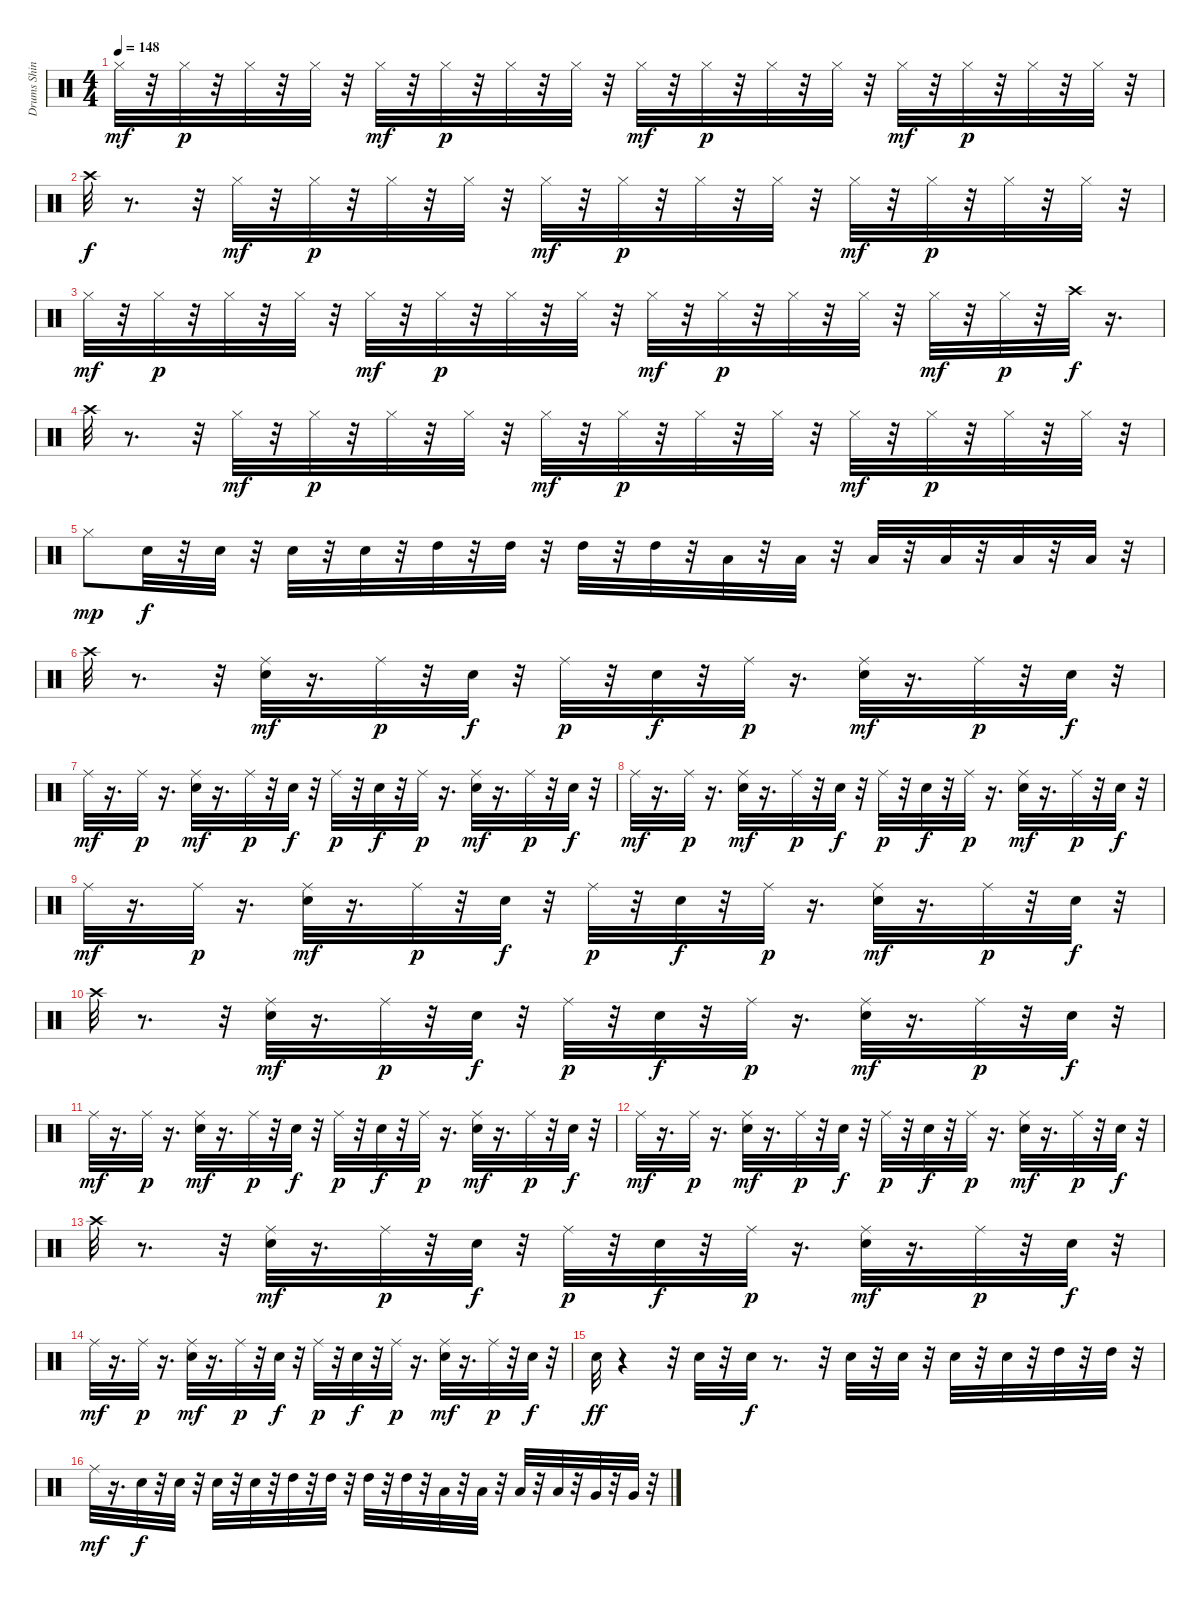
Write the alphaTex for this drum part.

\track ("Drums Shinya         " "Drums Shin") {instrument percussion}
\staff {score}
\articulation defaults
\ts (4 4)
\tempo 148
\clef neutral
\ks c "Hi-Hat (closed)".32{dy mf}
r.32 "Hi-Hat (closed)".32{dy p} r.32 "Hi-Hat (closed)".32 r.32 "Hi-Hat (closed)".32 r.32 "Hi-Hat (closed)".32{dy mf} r.32 "Hi-Hat (closed)".32{dy p} r.32 "Hi-Hat (closed)".32 r.32 "Hi-Hat (closed)".32 r.32 "Hi-Hat (closed)".32{dy mf} r.32 "Hi-Hat (closed)".32{dy p} r.32 "Hi-Hat (closed)".32 r.32 "Hi-Hat (closed)".32 r.32 "Hi-Hat (closed)".32{dy mf} r.32 "Hi-Hat (closed)".32{dy p} r.32 "Hi-Hat (closed)".32 r.32 "Hi-Hat (closed)".32 r.32 |
"Crash high (hit)".32{dy f} r.8{d} r.32 "Hi-Hat (closed)".32{dy mf} r.32 "Hi-Hat (closed)".32{dy p} r.32 "Hi-Hat (closed)".32 r.32 "Hi-Hat (closed)".32 r.32 "Hi-Hat (closed)".32{dy mf} r.32 "Hi-Hat (closed)".32{dy p} r.32 "Hi-Hat (closed)".32 r.32 "Hi-Hat (closed)".32 r.32 "Hi-Hat (closed)".32{dy mf} r.32 "Hi-Hat (closed)".32{dy p} r.32 "Hi-Hat (closed)".32 r.32 "Hi-Hat (closed)".32 r.32 |
"Hi-Hat (closed)".32{dy mf} r.32 "Hi-Hat (closed)".32{dy p} r.32 "Hi-Hat (closed)".32 r.32 "Hi-Hat (closed)".32 r.32 "Hi-Hat (closed)".32{dy mf} r.32 "Hi-Hat (closed)".32{dy p} r.32 "Hi-Hat (closed)".32 r.32 "Hi-Hat (closed)".32 r.32 "Hi-Hat (closed)".32{dy mf} r.32 "Hi-Hat (closed)".32{dy p} r.32 "Hi-Hat (closed)".32 r.32 "Hi-Hat (closed)".32 r.32 "Hi-Hat (closed)".32{dy mf} r.32 "Hi-Hat (closed)".32{dy p} r.32 "Crash high (hit)".32{dy f} r.16{d} |
"Crash high (hit)".32 r.8{d} r.32 "Hi-Hat (closed)".32{dy mf} r.32 "Hi-Hat (closed)".32{dy p} r.32 "Hi-Hat (closed)".32 r.32 "Hi-Hat (closed)".32 r.32 "Hi-Hat (closed)".32{dy mf} r.32 "Hi-Hat (closed)".32{dy p} r.32 "Hi-Hat (closed)".32 r.32 "Hi-Hat (closed)".32 r.32 "Hi-Hat (closed)".32{dy mf} r.32 "Hi-Hat (closed)".32{dy p} r.32 "Hi-Hat (closed)".32 r.32 "Hi-Hat (closed)".32 r.32 |
"Hi-Hat (closed)".8{dy mp} "Electric Snare (hit)".32{dy f} r.32 "Electric Snare (hit)".32 r.32 "Electric Snare (hit)".32 r.32 "Electric Snare (hit)".32 r.32 "High Tom (hit)".32 r.32 "High Tom (hit)".32 r.32 "High Tom (hit)".32 r.32 "High Tom (hit)".32 r.32 "Low Tom (hit)".32 r.32 "Low Tom (hit)".32 r.32 "Low Tom (hit)".32 r.32 "Low Tom (hit)".32 r.32 "Low Floor Tom (hit)".32 r.32 "Low Floor Tom (hit)".32 r.32 |
"Crash high (hit)".32 r.8{d} r.32 ("Electric Snare (hit)" "Ride (middle)").32{dy mf} r.16{d} "Ride (middle)".32{dy p} r.32 "Electric Snare (hit)".32{dy f} r.32 "Ride (middle)".32{dy p} r.32 "Electric Snare (hit)".32{dy f} r.32 "Ride (middle)".32{dy p} r.16{d} ("Electric Snare (hit)" "Ride (middle)").32{dy mf} r.16{d} "Ride (middle)".32{dy p} r.32 "Electric Snare (hit)".32{dy f} r.32 |
"Ride (middle)".32{dy mf} r.16{d} "Ride (middle)".32{dy p} r.16{d} ("Electric Snare (hit)" "Ride (middle)").32{dy mf} r.16{d} "Ride (middle)".32{dy p} r.32 "Electric Snare (hit)".32{dy f} r.32 "Ride (middle)".32{dy p} r.32 "Electric Snare (hit)".32{dy f} r.32 "Ride (middle)".32{dy p} r.16{d} ("Electric Snare (hit)" "Ride (middle)").32{dy mf} r.16{d} "Ride (middle)".32{dy p} r.32 "Electric Snare (hit)".32{dy f} r.32 |
"Ride (middle)".32{dy mf} r.16{d} "Ride (middle)".32{dy p} r.16{d} ("Electric Snare (hit)" "Ride (middle)").32{dy mf} r.16{d} "Ride (middle)".32{dy p} r.32 "Electric Snare (hit)".32{dy f} r.32 "Ride (middle)".32{dy p} r.32 "Electric Snare (hit)".32{dy f} r.32 "Ride (middle)".32{dy p} r.16{d} ("Electric Snare (hit)" "Ride (middle)").32{dy mf} r.16{d} "Ride (middle)".32{dy p} r.32 "Electric Snare (hit)".32{dy f} r.32 |
"Ride (middle)".32{dy mf} r.16{d} "Ride (middle)".32{dy p} r.16{d} ("Electric Snare (hit)" "Ride (middle)").32{dy mf} r.16{d} "Ride (middle)".32{dy p} r.32 "Electric Snare (hit)".32{dy f} r.32 "Ride (middle)".32{dy p} r.32 "Electric Snare (hit)".32{dy f} r.32 "Ride (middle)".32{dy p} r.16{d} ("Electric Snare (hit)" "Ride (middle)").32{dy mf} r.16{d} "Ride (middle)".32{dy p} r.32 "Electric Snare (hit)".32{dy f} r.32 |
"Crash high (hit)".32 r.8{d} r.32 ("Electric Snare (hit)" "Ride (middle)").32{dy mf} r.16{d} "Ride (middle)".32{dy p} r.32 "Electric Snare (hit)".32{dy f} r.32 "Ride (middle)".32{dy p} r.32 "Electric Snare (hit)".32{dy f} r.32 "Ride (middle)".32{dy p} r.16{d} ("Electric Snare (hit)" "Ride (middle)").32{dy mf} r.16{d} "Ride (middle)".32{dy p} r.32 "Electric Snare (hit)".32{dy f} r.32 |
"Ride (middle)".32{dy mf} r.16{d} "Ride (middle)".32{dy p} r.16{d} ("Electric Snare (hit)" "Ride (middle)").32{dy mf} r.16{d} "Ride (middle)".32{dy p} r.32 "Electric Snare (hit)".32{dy f} r.32 "Ride (middle)".32{dy p} r.32 "Electric Snare (hit)".32{dy f} r.32 "Ride (middle)".32{dy p} r.16{d} ("Electric Snare (hit)" "Ride (middle)").32{dy mf} r.16{d} "Ride (middle)".32{dy p} r.32 "Electric Snare (hit)".32{dy f} r.32 |
"Ride (middle)".32{dy mf} r.16{d} "Ride (middle)".32{dy p} r.16{d} ("Electric Snare (hit)" "Ride (middle)").32{dy mf} r.16{d} "Ride (middle)".32{dy p} r.32 "Electric Snare (hit)".32{dy f} r.32 "Ride (middle)".32{dy p} r.32 "Electric Snare (hit)".32{dy f} r.32 "Ride (middle)".32{dy p} r.16{d} ("Electric Snare (hit)" "Ride (middle)").32{dy mf} r.16{d} "Ride (middle)".32{dy p} r.32 "Electric Snare (hit)".32{dy f} r.32 |
"Crash high (hit)".32 r.8{d} r.32 ("Electric Snare (hit)" "Ride (middle)").32{dy mf} r.16{d} "Ride (middle)".32{dy p} r.32 "Electric Snare (hit)".32{dy f} r.32 "Ride (middle)".32{dy p} r.32 "Electric Snare (hit)".32{dy f} r.32 "Ride (middle)".32{dy p} r.16{d} ("Electric Snare (hit)" "Ride (middle)").32{dy mf} r.16{d} "Ride (middle)".32{dy p} r.32 "Electric Snare (hit)".32{dy f} r.32 |
"Ride (middle)".32{dy mf} r.16{d} "Ride (middle)".32{dy p} r.16{d} ("Electric Snare (hit)" "Ride (middle)").32{dy mf} r.16{d} "Ride (middle)".32{dy p} r.32 "Electric Snare (hit)".32{dy f} r.32 "Ride (middle)".32{dy p} r.32 "Electric Snare (hit)".32{dy f} r.32 "Ride (middle)".32{dy p} r.16{d} ("Electric Snare (hit)" "Ride (middle)").32{dy mf} r.16{d} "Ride (middle)".32{dy p} r.32 "Electric Snare (hit)".32{dy f} r.32 |
"Electric Snare (hit)".32{dy ff} r.4 r.32 "Electric Snare (hit)".32 r.32 "Electric Snare (hit)".32{dy f} r.8{d} r.32 "Electric Snare (hit)".32 r.32 "Electric Snare (hit)".32 r.32 "Electric Snare (hit)".32 r.32 "Electric Snare (hit)".32 r.32 "High Tom (hit)".32 r.32 "High Tom (hit)".32 r.32 |
"Ride (middle)".32{dy mf} r.16{d} "Electric Snare (hit)".32{dy f} r.32 "Electric Snare (hit)".32 r.32 "Electric Snare (hit)".32 r.32 "Electric Snare (hit)".32 r.32 "High Tom (hit)".32 r.32 "High Tom (hit)".32 r.32 "High Tom (hit)".32 r.32 "High Tom (hit)".32 r.32 "Low Tom (hit)".32 r.32 "Low Tom (hit)".32 r.32 "Low Tom (hit)".32 r.32 "Low Tom (hit)".32 r.32 "Very Low Tom (hit)".32 r.32 "Very Low Tom (hit)".32 r.32
